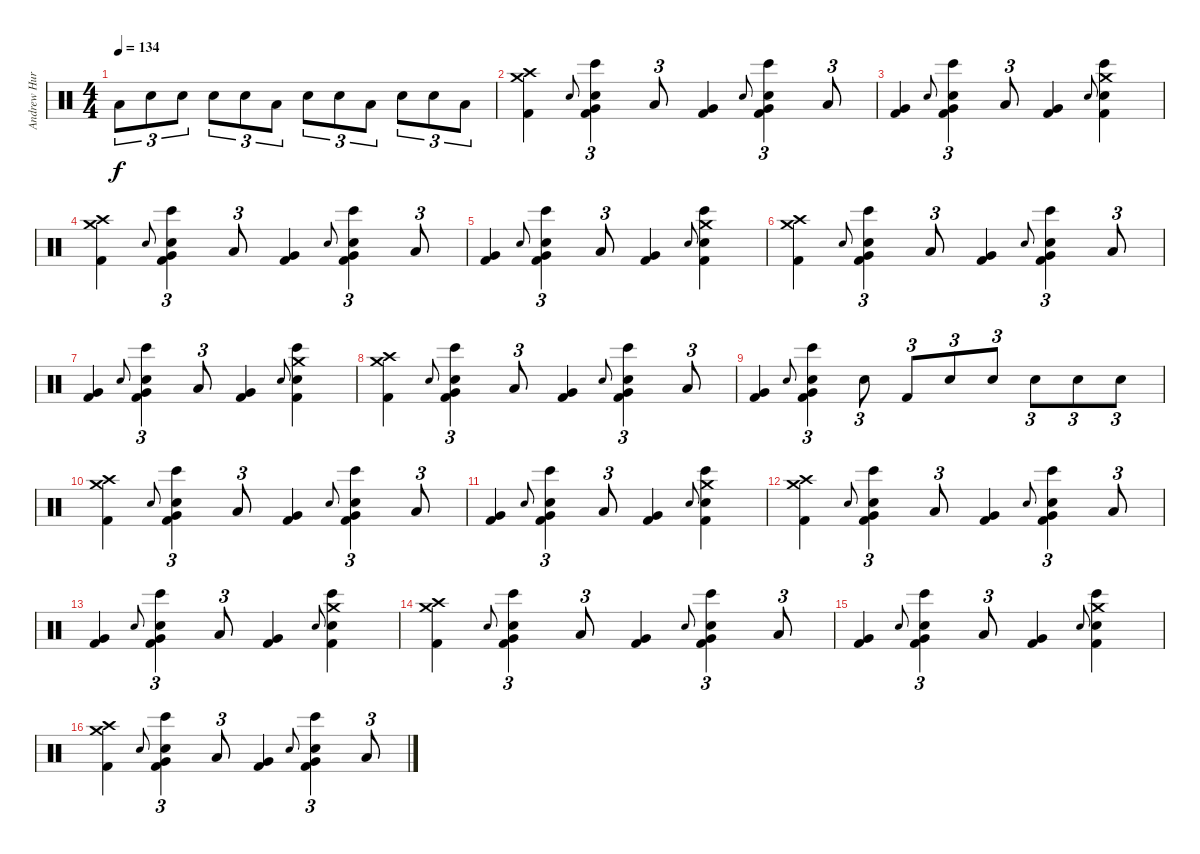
\track ("Andrew Hurley (Drums)" "Andrew Hur") {instrument percussion}
\staff {score}
\articulation defaults
\ts (4 4)
\tempo 134
\clef neutral
\ks c "Low Tom (hit)".8{tu (3 2) dy f} "Snare (hit) 2".8{tu (3 2)} "Snare (hit) 2".8{tu (3 2)} "Snare (hit) 2".8{tu (3 2)} "Snare (hit) 2".8{tu (3 2)} "Low Tom (hit)".8{tu (3 2)} "Snare (hit) 2".8{tu (3 2)} "Snare (hit) 2".8{tu (3 2)} "Low Tom (hit)".8{tu (3 2)} "Snare (hit) 2".8{tu (3 2)} "Snare (hit) 2".8{tu (3 2)} "Low Tom (hit)".8{tu (3 2)}
|
("Crash high (hit)" "Crash medium (hit)" "Kick (hit) 2").4 "Snare (hit)".8{gr onbeat} ("Very Low Tom (hit)" "Snare (hit) 2" "Kick (hit) 2" "Bongo High (hit)").4{tu (3 2)} "Low Tom (hit)".8{tu (3 2)} ("Very Low Tom (hit)" "Kick (hit) 2").4 "Snare (hit)".8{gr onbeat} ("Very Low Tom (hit)" "Snare (hit) 2" "Kick (hit) 2" "Bongo High (hit)").4{tu (3 2)} "Low Tom (hit)".8{tu (3 2)} |
("Very Low Tom (hit)" "Kick (hit) 2").4 "Snare (hit)".8{gr onbeat} ("Very Low Tom (hit)" "Snare (hit) 2" "Kick (hit) 2" "Bongo High (hit)").4{tu (3 2)} "Low Tom (hit)".8{tu (3 2)} ("Very Low Tom (hit)" "Kick (hit) 2").4 "Snare (hit)".8{gr onbeat} ("Crash medium (hit)" "Snare (hit) 2" "Kick (hit) 2" "Bongo High (hit)").4 |
("Crash high (hit)" "Crash medium (hit)" "Kick (hit) 2").4 "Snare (hit)".8{gr onbeat} ("Very Low Tom (hit)" "Snare (hit) 2" "Kick (hit) 2" "Bongo High (hit)").4{tu (3 2)} "Low Tom (hit)".8{tu (3 2)} ("Very Low Tom (hit)" "Kick (hit) 2").4 "Snare (hit)".8{gr onbeat} ("Very Low Tom (hit)" "Snare (hit) 2" "Kick (hit) 2" "Bongo High (hit)").4{tu (3 2)} "Low Tom (hit)".8{tu (3 2)} |
("Very Low Tom (hit)" "Kick (hit) 2").4 "Snare (hit)".8{gr onbeat} ("Very Low Tom (hit)" "Snare (hit) 2" "Kick (hit) 2" "Bongo High (hit)").4{tu (3 2)} "Low Tom (hit)".8{tu (3 2)} ("Very Low Tom (hit)" "Kick (hit) 2").4 "Snare (hit)".8{gr onbeat} ("Crash medium (hit)" "Snare (hit) 2" "Kick (hit) 2" "Bongo High (hit)").4 |
("Crash high (hit)" "Crash medium (hit)" "Kick (hit) 2").4 "Snare (hit)".8{gr onbeat} ("Very Low Tom (hit)" "Snare (hit) 2" "Kick (hit) 2" "Bongo High (hit)").4{tu (3 2)} "Low Tom (hit)".8{tu (3 2)} ("Very Low Tom (hit)" "Kick (hit) 2").4 "Snare (hit)".8{gr onbeat} ("Very Low Tom (hit)" "Snare (hit) 2" "Kick (hit) 2" "Bongo High (hit)").4{tu (3 2)} "Low Tom (hit)".8{tu (3 2)} |
("Very Low Tom (hit)" "Kick (hit) 2").4 "Snare (hit)".8{gr onbeat} ("Very Low Tom (hit)" "Snare (hit) 2" "Kick (hit) 2" "Bongo High (hit)").4{tu (3 2)} "Low Tom (hit)".8{tu (3 2)} ("Very Low Tom (hit)" "Kick (hit) 2").4 "Snare (hit)".8{gr onbeat} ("Crash medium (hit)" "Snare (hit) 2" "Kick (hit) 2" "Bongo High (hit)").4 |
("Crash high (hit)" "Crash medium (hit)" "Kick (hit) 2").4 "Snare (hit)".8{gr onbeat} ("Very Low Tom (hit)" "Snare (hit) 2" "Kick (hit) 2" "Bongo High (hit)").4{tu (3 2)} "Low Tom (hit)".8{tu (3 2)} ("Very Low Tom (hit)" "Kick (hit) 2").4 "Snare (hit)".8{gr onbeat} ("Very Low Tom (hit)" "Snare (hit) 2" "Kick (hit) 2" "Bongo High (hit)").4{tu (3 2)} "Low Tom (hit)".8{tu (3 2)} |
("Very Low Tom (hit)" "Kick (hit) 2").4 "Snare (hit)".8{gr onbeat} ("Very Low Tom (hit)" "Snare (hit) 2" "Kick (hit) 2" "Bongo High (hit)").4{tu (3 2)} "Snare (hit) 2".8{tu (3 2)} "Kick (hit) 2".8{tu (3 2)} "Snare (hit) 2".8{tu (3 2)} "Snare (hit) 2".8{tu (3 2)} "Snare (hit) 2".8{tu (3 2)} "Snare (hit) 2".8{tu (3 2)} "Snare (hit) 2".8{tu (3 2)} |
("Crash high (hit)" "Crash medium (hit)" "Kick (hit) 2").4 "Snare (hit)".8{gr onbeat} ("Very Low Tom (hit)" "Snare (hit) 2" "Kick (hit) 2" "Bongo High (hit)").4{tu (3 2)} "Low Tom (hit)".8{tu (3 2)} ("Very Low Tom (hit)" "Kick (hit) 2").4 "Snare (hit)".8{gr onbeat} ("Very Low Tom (hit)" "Snare (hit) 2" "Kick (hit) 2" "Bongo High (hit)").4{tu (3 2)} "Low Tom (hit)".8{tu (3 2)} |
("Very Low Tom (hit)" "Kick (hit) 2").4 "Snare (hit)".8{gr onbeat} ("Very Low Tom (hit)" "Snare (hit) 2" "Kick (hit) 2" "Bongo High (hit)").4{tu (3 2)} "Low Tom (hit)".8{tu (3 2)} ("Very Low Tom (hit)" "Kick (hit) 2").4 "Snare (hit)".8{gr onbeat} ("Crash medium (hit)" "Snare (hit) 2" "Kick (hit) 2" "Bongo High (hit)").4 |
("Crash high (hit)" "Crash medium (hit)" "Kick (hit) 2").4 "Snare (hit)".8{gr onbeat} ("Very Low Tom (hit)" "Snare (hit) 2" "Kick (hit) 2" "Bongo High (hit)").4{tu (3 2)} "Low Tom (hit)".8{tu (3 2)} ("Very Low Tom (hit)" "Kick (hit) 2").4 "Snare (hit)".8{gr onbeat} ("Very Low Tom (hit)" "Snare (hit) 2" "Kick (hit) 2" "Bongo High (hit)").4{tu (3 2)} "Low Tom (hit)".8{tu (3 2)} |
("Very Low Tom (hit)" "Kick (hit) 2").4 "Snare (hit)".8{gr onbeat} ("Very Low Tom (hit)" "Snare (hit) 2" "Kick (hit) 2" "Bongo High (hit)").4{tu (3 2)} "Low Tom (hit)".8{tu (3 2)} ("Very Low Tom (hit)" "Kick (hit) 2").4 "Snare (hit)".8{gr onbeat} ("Crash medium (hit)" "Snare (hit) 2" "Kick (hit) 2" "Bongo High (hit)").4 |
("Crash high (hit)" "Crash medium (hit)" "Kick (hit) 2").4 "Snare (hit)".8{gr onbeat} ("Very Low Tom (hit)" "Snare (hit) 2" "Kick (hit) 2" "Bongo High (hit)").4{tu (3 2)} "Low Tom (hit)".8{tu (3 2)} ("Very Low Tom (hit)" "Kick (hit) 2").4 "Snare (hit)".8{gr onbeat} ("Very Low Tom (hit)" "Snare (hit) 2" "Kick (hit) 2" "Bongo High (hit)").4{tu (3 2)} "Low Tom (hit)".8{tu (3 2)} |
("Very Low Tom (hit)" "Kick (hit) 2").4 "Snare (hit)".8{gr onbeat} ("Very Low Tom (hit)" "Snare (hit) 2" "Kick (hit) 2" "Bongo High (hit)").4{tu (3 2)} "Low Tom (hit)".8{tu (3 2)} ("Very Low Tom (hit)" "Kick (hit) 2").4 "Snare (hit)".8{gr onbeat} ("Crash medium (hit)" "Snare (hit) 2" "Kick (hit) 2" "Bongo High (hit)").4 |
("Crash high (hit)" "Crash medium (hit)" "Kick (hit) 2").4 "Snare (hit)".8{gr onbeat} ("Very Low Tom (hit)" "Snare (hit) 2" "Kick (hit) 2" "Bongo High (hit)").4{tu (3 2)} "Low Tom (hit)".8{tu (3 2)} ("Very Low Tom (hit)" "Kick (hit) 2").4 "Snare (hit)".8{gr onbeat} ("Very Low Tom (hit)" "Snare (hit) 2" "Kick (hit) 2" "Bongo High (hit)").4{tu (3 2)} "Low Tom (hit)".8{tu (3 2)}
